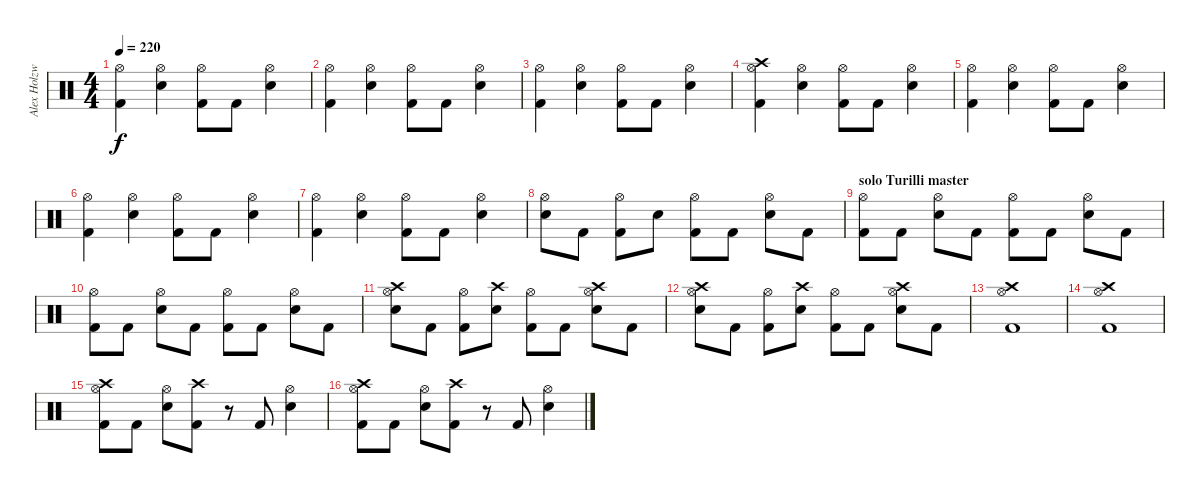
\track ("Alex Holzwarth" "Alex Holzw") {instrument percussion}
\staff {score}
\articulation defaults
\ts (4 4)
\tempo 220
\clef neutral
\ks c
("Hi-Hat (open)" "Kick (hit) 2").4{dy f} ("Hi-Hat (open)" "Electric Snare (hit)").4 ("Hi-Hat (open)" "Kick (hit) 2").8 "Kick (hit) 2".8 ("Hi-Hat (open)" "Electric Snare (hit)").4 |
("Hi-Hat (open)" "Kick (hit) 2").4 ("Hi-Hat (open)" "Electric Snare (hit)").4 ("Hi-Hat (open)" "Kick (hit) 2").8 "Kick (hit) 2".8 ("Hi-Hat (open)" "Electric Snare (hit)").4 |
("Hi-Hat (open)" "Kick (hit) 2").4 ("Hi-Hat (open)" "Electric Snare (hit)").4 ("Hi-Hat (open)" "Kick (hit) 2").8 "Kick (hit) 2".8 ("Hi-Hat (open)" "Electric Snare (hit)").4 |
("Crash high (hit)" "Hi-Hat (open)" "Kick (hit) 2").4 ("Hi-Hat (open)" "Electric Snare (hit)").4 ("Hi-Hat (open)" "Kick (hit) 2").8 "Kick (hit) 2".8 ("Hi-Hat (open)" "Electric Snare (hit)").4 |
("Hi-Hat (open)" "Kick (hit) 2").4 ("Hi-Hat (open)" "Electric Snare (hit)").4 ("Hi-Hat (open)" "Kick (hit) 2").8 "Kick (hit) 2".8 ("Hi-Hat (open)" "Electric Snare (hit)").4 |
("Hi-Hat (open)" "Kick (hit) 2").4 ("Hi-Hat (open)" "Electric Snare (hit)").4 ("Hi-Hat (open)" "Kick (hit) 2").8 "Kick (hit) 2".8 ("Hi-Hat (open)" "Electric Snare (hit)").4 |
("Hi-Hat (open)" "Kick (hit) 2").4 ("Hi-Hat (open)" "Electric Snare (hit)").4 ("Hi-Hat (open)" "Kick (hit) 2").8 "Kick (hit) 2".8 ("Hi-Hat (open)" "Electric Snare (hit)").4 |
("Hi-Hat (open)" "Electric Snare (hit)").8 "Kick (hit) 2".8 ("Hi-Hat (open)" "Kick (hit) 2").8 "Electric Snare (hit)".8 ("Hi-Hat (open)" "Kick (hit) 2").8 "Kick (hit) 2".8 ("Hi-Hat (open)" "Electric Snare (hit)").8 "Kick (hit) 2".8 |
\section ("" "solo Turilli master")
("Hi-Hat (open)" "Kick (hit) 2").8 "Kick (hit) 2".8 ("Hi-Hat (open)" "Electric Snare (hit)").8 "Kick (hit) 2".8 ("Hi-Hat (open)" "Kick (hit) 2").8 "Kick (hit) 2".8 ("Hi-Hat (open)" "Electric Snare (hit)").8 "Kick (hit) 2".8 |
("Hi-Hat (open)" "Kick (hit) 2").8 "Kick (hit) 2".8 ("Hi-Hat (open)" "Electric Snare (hit)").8 "Kick (hit) 2".8 ("Hi-Hat (open)" "Kick (hit) 2").8 "Kick (hit) 2".8 ("Hi-Hat (open)" "Electric Snare (hit)").8 "Kick (hit) 2".8 |
("Crash high (hit)" "Hi-Hat (open)" "Electric Snare (hit)").8 "Kick (hit) 2".8 ("Hi-Hat (open)" "Kick (hit) 2").8 ("Crash high (hit)" "Electric Snare (hit)").8 ("Hi-Hat (open)" "Kick (hit) 2").8 "Kick (hit) 2".8 ("Crash high (hit)" "Hi-Hat (open)" "Electric Snare (hit)").8 "Kick (hit) 2".8 |
("Crash high (hit)" "Hi-Hat (open)" "Electric Snare (hit)").8 "Kick (hit) 2".8 ("Hi-Hat (open)" "Kick (hit) 2").8 ("Crash high (hit)" "Electric Snare (hit)").8 ("Hi-Hat (open)" "Kick (hit) 2").8 "Kick (hit) 2".8 ("Crash high (hit)" "Hi-Hat (open)" "Electric Snare (hit)").8 "Kick (hit) 2".8 |
("Crash high (hit)" "Hi-Hat (open)" "Kick (hit) 2").1 |
("Crash high (hit)" "Hi-Hat (open)" "Kick (hit) 2").1 |
("Crash high (hit)" "Hi-Hat (open)" "Kick (hit) 2").8 "Kick (hit) 2".8 ("Hi-Hat (open)" "Electric Snare (hit)").8 ("Crash high (hit)" "Kick (hit) 2").8 r.8 "Kick (hit) 2".8 ("Hi-Hat (open)" "Electric Snare (hit)").4 |
("Crash high (hit)" "Hi-Hat (open)" "Kick (hit) 2").8 "Kick (hit) 2".8 ("Hi-Hat (open)" "Electric Snare (hit)").8 ("Crash high (hit)" "Kick (hit) 2").8 r.8 "Kick (hit) 2".8 ("Hi-Hat (open)" "Electric Snare (hit)").4
